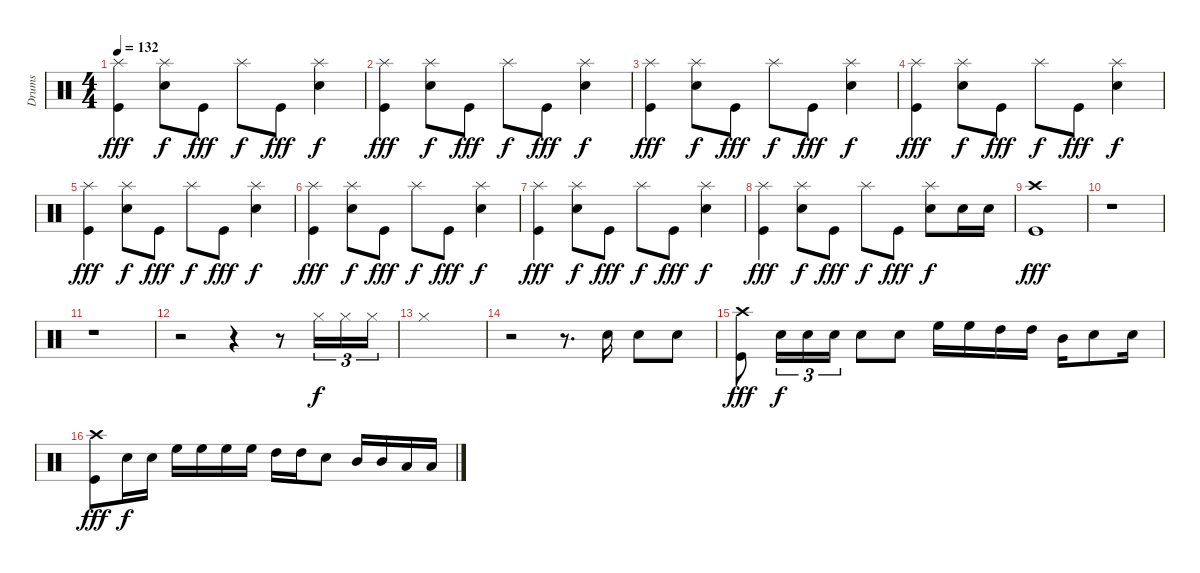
\track ("Drums" "Drums") {instrument percussion}
\staff {score}
\articulation defaults
\ts (4 4)
\tempo 132
\clef neutral
\ks c
("Splash (hit)" "Kick (hit)").4{dy fff} ("Splash (hit)" "Snare (hit) 2").8{dy f} "Kick (hit)".8{dy fff} "Splash (hit)".8{dy f} "Kick (hit)".8{dy fff} ("Splash (hit)" "Snare (hit) 2").4{dy f} |
("Splash (hit)" "Kick (hit)").4{dy fff} ("Splash (hit)" "Snare (hit) 2").8{dy f} "Kick (hit)".8{dy fff} "Splash (hit)".8{dy f} "Kick (hit)".8{dy fff} ("Splash (hit)" "Snare (hit) 2").4{dy f} |
("Splash (hit)" "Kick (hit)").4{dy fff} ("Splash (hit)" "Snare (hit) 2").8{dy f} "Kick (hit)".8{dy fff} "Splash (hit)".8{dy f} "Kick (hit)".8{dy fff} ("Splash (hit)" "Snare (hit) 2").4{dy f} |
("Splash (hit)" "Kick (hit)").4{dy fff} ("Splash (hit)" "Snare (hit) 2").8{dy f} "Kick (hit)".8{dy fff} "Splash (hit)".8{dy f} "Kick (hit)".8{dy fff} ("Splash (hit)" "Snare (hit) 2").4{dy f} |
("Splash (hit)" "Kick (hit)").4{dy fff} ("Splash (hit)" "Snare (hit) 2").8{dy f} "Kick (hit)".8{dy fff} "Splash (hit)".8{dy f} "Kick (hit)".8{dy fff} ("Splash (hit)" "Snare (hit) 2").4{dy f} |
("Splash (hit)" "Kick (hit)").4{dy fff} ("Splash (hit)" "Snare (hit) 2").8{dy f} "Kick (hit)".8{dy fff} "Splash (hit)".8{dy f} "Kick (hit)".8{dy fff} ("Splash (hit)" "Snare (hit) 2").4{dy f} |
("Splash (hit)" "Kick (hit)").4{dy fff} ("Splash (hit)" "Snare (hit) 2").8{dy f} "Kick (hit)".8{dy fff} "Splash (hit)".8{dy f} "Kick (hit)".8{dy fff} ("Splash (hit)" "Snare (hit) 2").4{dy f} |
("Splash (hit)" "Kick (hit)").4{dy fff} ("Splash (hit)" "Snare (hit) 2").8{dy f} "Kick (hit)".8{dy fff} "Splash (hit)".8{dy f} "Kick (hit)".8{dy fff} ("Splash (hit)" "Snare (hit) 2").8{dy f} "Snare (hit) 2".16 "Snare (hit) 2".16 |
("Crash high (hit)" "Kick (hit)").1{dy fff} |
r.1 |
r.1 |
r.2 r.4 r.8 "Hi-Hat (closed)".16{tu (3 2) dy f} "Hi-Hat (closed)".16{tu (3 2)} "Hi-Hat (closed)".16{tu (3 2)} |
"Hi-Hat (closed)".1 |
r.2 r.8{d} "Snare (hit) 2".16 "Snare (hit) 2".8 "Snare (hit) 2".8 |
("Crash high (hit)" "Kick (hit)").8{dy fff} "Snare (hit) 2".16{tu (3 2) dy f} "Snare (hit) 2".16{tu (3 2)} "Snare (hit) 2".16{tu (3 2)} "Snare (hit) 2".8 "Snare (hit) 2".8 "High Floor Tom (hit)".16 "High Floor Tom (hit)".16 "High Tom (hit)".16 "High Tom (hit)".16 "Mid Tom (hit)".16 "Snare (hit) 2".8 "Snare (hit) 2".16 |
("Crash high (hit)" "Kick (hit)").8{dy fff} "Snare (hit) 2".16{dy f} "Snare (hit) 2".16 "High Floor Tom (hit)".16 "High Floor Tom (hit)".16 "High Floor Tom (hit)".16 "High Floor Tom (hit)".16 "High Tom (hit)".16 "High Tom (hit)".16 "Snare (hit) 2".8 "Mid Tom (hit)".16 "Mid Tom (hit)".16 "Low Tom (hit)".16 "Low Tom (hit)".16
